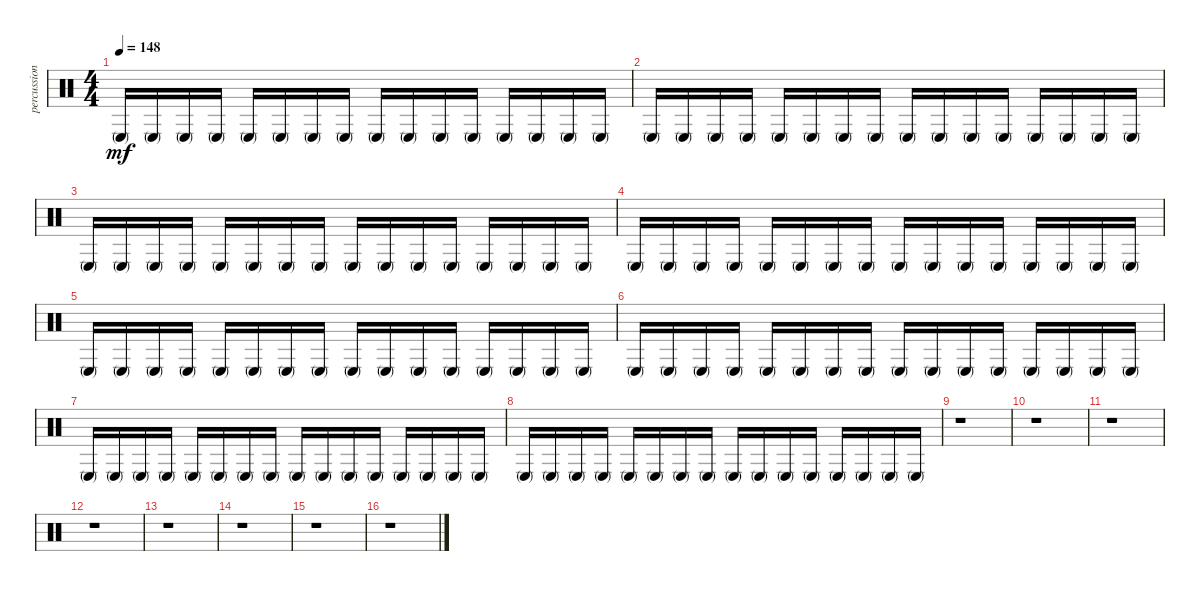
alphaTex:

\track ("percussion fx 2" "percussion") {instrument percussion}
\staff {score}
\articulation defaults
\ts (4 4)
\tempo 148
\clef neutral
\ks c "Conga low (mute)".16{dy mf} "Conga low (mute)".16 "Conga low (mute)".16 "Conga low (mute)".16 "Conga low (mute)".16 "Conga low (mute)".16 "Conga low (mute)".16 "Conga low (mute)".16 "Conga low (mute)".16 "Conga low (mute)".16 "Conga low (mute)".16 "Conga low (mute)".16 "Conga low (mute)".16 "Conga low (mute)".16 "Conga low (mute)".16 "Conga low (mute)".16
|
"Conga low (mute)".16 "Conga low (mute)".16 "Conga low (mute)".16 "Conga low (mute)".16 "Conga low (mute)".16 "Conga low (mute)".16 "Conga low (mute)".16 "Conga low (mute)".16 "Conga low (mute)".16 "Conga low (mute)".16 "Conga low (mute)".16 "Conga low (mute)".16 "Conga low (mute)".16 "Conga low (mute)".16 "Conga low (mute)".16 "Conga low (mute)".16 |
"Conga low (mute)".16 "Conga low (mute)".16 "Conga low (mute)".16 "Conga low (mute)".16 "Conga low (mute)".16 "Conga low (mute)".16 "Conga low (mute)".16 "Conga low (mute)".16 "Conga low (mute)".16 "Conga low (mute)".16 "Conga low (mute)".16 "Conga low (mute)".16 "Conga low (mute)".16 "Conga low (mute)".16 "Conga low (mute)".16 "Conga low (mute)".16 |
"Conga low (mute)".16 "Conga low (mute)".16 "Conga low (mute)".16 "Conga low (mute)".16 "Conga low (mute)".16 "Conga low (mute)".16 "Conga low (mute)".16 "Conga low (mute)".16 "Conga low (mute)".16 "Conga low (mute)".16 "Conga low (mute)".16 "Conga low (mute)".16 "Conga low (mute)".16 "Conga low (mute)".16 "Conga low (mute)".16 "Conga low (mute)".16 |
"Conga low (mute)".16 "Conga low (mute)".16 "Conga low (mute)".16 "Conga low (mute)".16 "Conga low (mute)".16 "Conga low (mute)".16 "Conga low (mute)".16 "Conga low (mute)".16 "Conga low (mute)".16 "Conga low (mute)".16 "Conga low (mute)".16 "Conga low (mute)".16 "Conga low (mute)".16 "Conga low (mute)".16 "Conga low (mute)".16 "Conga low (mute)".16 |
"Conga low (mute)".16 "Conga low (mute)".16 "Conga low (mute)".16 "Conga low (mute)".16 "Conga low (mute)".16 "Conga low (mute)".16 "Conga low (mute)".16 "Conga low (mute)".16 "Conga low (mute)".16 "Conga low (mute)".16 "Conga low (mute)".16 "Conga low (mute)".16 "Conga low (mute)".16 "Conga low (mute)".16 "Conga low (mute)".16 "Conga low (mute)".16 |
"Conga low (mute)".16 "Conga low (mute)".16 "Conga low (mute)".16 "Conga low (mute)".16 "Conga low (mute)".16 "Conga low (mute)".16 "Conga low (mute)".16 "Conga low (mute)".16 "Conga low (mute)".16 "Conga low (mute)".16 "Conga low (mute)".16 "Conga low (mute)".16 "Conga low (mute)".16 "Conga low (mute)".16 "Conga low (mute)".16 "Conga low (mute)".16 |
"Conga low (mute)".16 "Conga low (mute)".16 "Conga low (mute)".16 "Conga low (mute)".16 "Conga low (mute)".16 "Conga low (mute)".16 "Conga low (mute)".16 "Conga low (mute)".16 "Conga low (mute)".16 "Conga low (mute)".16 "Conga low (mute)".16 "Conga low (mute)".16 "Conga low (mute)".16 "Conga low (mute)".16 "Conga low (mute)".16 "Conga low (mute)".16 |
r.1 |
r.1 |
r.1 |
r.1 |
r.1 |
r.1 |
r.1 |
r.1
